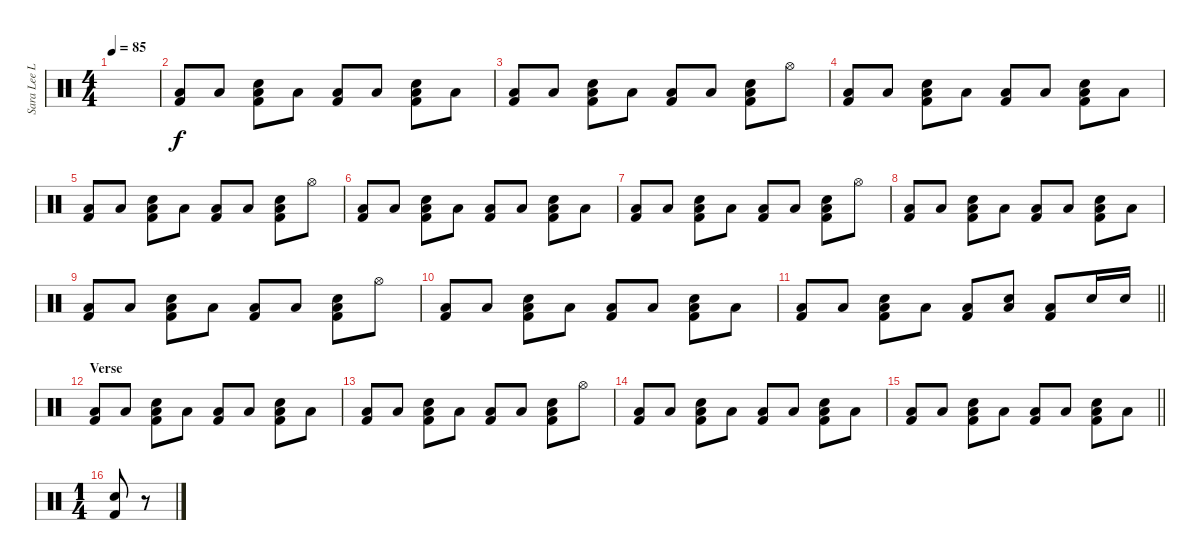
\track ("Sara Lee Lucas" "Sara Lee L") {instrument percussion}
\staff {score}
\articulation defaults
\ts (4 4)
\tempo 85
\clef neutral
\ks c
|
("Low Tom (hit)" "Kick (hit) 2").8 "Low Tom (hit)".8 ("Low Tom (hit)" "Snare (hit) 2" "Kick (hit) 2").8 "Low Tom (hit)".8 ("Low Tom (hit)" "Kick (hit) 2").8 "Low Tom (hit)".8 ("Low Tom (hit)" "Snare (hit) 2" "Kick (hit) 2").8 "Low Tom (hit)".8 |
("Low Tom (hit)" "Kick (hit) 2").8 "Low Tom (hit)".8 ("Low Tom (hit)" "Snare (hit) 2" "Kick (hit) 2").8 "Low Tom (hit)".8 ("Low Tom (hit)" "Kick (hit) 2").8 "Low Tom (hit)".8 ("Low Tom (hit)" "Snare (hit) 2" "Kick (hit) 2").8 "Hi-Hat (open)".8 |
("Low Tom (hit)" "Kick (hit) 2").8 "Low Tom (hit)".8 ("Low Tom (hit)" "Snare (hit) 2" "Kick (hit) 2").8 "Low Tom (hit)".8 ("Low Tom (hit)" "Kick (hit) 2").8 "Low Tom (hit)".8 ("Low Tom (hit)" "Snare (hit) 2" "Kick (hit) 2").8 "Low Tom (hit)".8 |
("Low Tom (hit)" "Kick (hit) 2").8 "Low Tom (hit)".8 ("Low Tom (hit)" "Snare (hit) 2" "Kick (hit) 2").8 "Low Tom (hit)".8 ("Low Tom (hit)" "Kick (hit) 2").8 "Low Tom (hit)".8 ("Low Tom (hit)" "Snare (hit) 2" "Kick (hit) 2").8 "Hi-Hat (open)".8 |
("Low Tom (hit)" "Kick (hit) 2").8 "Low Tom (hit)".8 ("Low Tom (hit)" "Snare (hit) 2" "Kick (hit) 2").8 "Low Tom (hit)".8 ("Low Tom (hit)" "Kick (hit) 2").8 "Low Tom (hit)".8 ("Low Tom (hit)" "Snare (hit) 2" "Kick (hit) 2").8 "Low Tom (hit)".8 |
("Low Tom (hit)" "Kick (hit) 2").8 "Low Tom (hit)".8 ("Low Tom (hit)" "Snare (hit) 2" "Kick (hit) 2").8 "Low Tom (hit)".8 ("Low Tom (hit)" "Kick (hit) 2").8 "Low Tom (hit)".8 ("Low Tom (hit)" "Snare (hit) 2" "Kick (hit) 2").8 "Hi-Hat (open)".8 |
("Low Tom (hit)" "Kick (hit) 2").8 "Low Tom (hit)".8 ("Low Tom (hit)" "Snare (hit) 2" "Kick (hit) 2").8 "Low Tom (hit)".8 ("Low Tom (hit)" "Kick (hit) 2").8 "Low Tom (hit)".8 ("Low Tom (hit)" "Snare (hit) 2" "Kick (hit) 2").8 "Low Tom (hit)".8 |
("Low Tom (hit)" "Kick (hit) 2").8 "Low Tom (hit)".8 ("Low Tom (hit)" "Snare (hit) 2" "Kick (hit) 2").8 "Low Tom (hit)".8 ("Low Tom (hit)" "Kick (hit) 2").8 "Low Tom (hit)".8 ("Low Tom (hit)" "Snare (hit) 2" "Kick (hit) 2").8 "Hi-Hat (open)".8 |
("Low Tom (hit)" "Kick (hit) 2").8 "Low Tom (hit)".8 ("Low Tom (hit)" "Snare (hit) 2" "Kick (hit) 2").8 "Low Tom (hit)".8 ("Low Tom (hit)" "Kick (hit) 2").8 "Low Tom (hit)".8 ("Low Tom (hit)" "Snare (hit) 2" "Kick (hit) 2").8 "Low Tom (hit)".8 |
\barLineRight lightlight
("Low Tom (hit)" "Kick (hit) 2").8 "Low Tom (hit)".8 ("Low Tom (hit)" "Snare (hit) 2" "Kick (hit) 2").8 "Low Tom (hit)".8 ("Low Tom (hit)" "Kick (hit) 2").8 ("Low Tom (hit)" "Snare (hit) 2").8 ("Low Tom (hit)" "Kick (hit) 2").8 "Snare (hit) 2".16 "Snare (hit) 2".16 |
\section ("" "Verse")
("Low Tom (hit)" "Kick (hit) 2").8 "Low Tom (hit)".8 ("Low Tom (hit)" "Snare (hit) 2" "Kick (hit) 2").8 "Low Tom (hit)".8 ("Low Tom (hit)" "Kick (hit) 2").8 "Low Tom (hit)".8 ("Low Tom (hit)" "Snare (hit) 2" "Kick (hit) 2").8 "Low Tom (hit)".8 |
("Low Tom (hit)" "Kick (hit) 2").8 "Low Tom (hit)".8 ("Low Tom (hit)" "Snare (hit) 2" "Kick (hit) 2").8 "Low Tom (hit)".8 ("Low Tom (hit)" "Kick (hit) 2").8 "Low Tom (hit)".8 ("Low Tom (hit)" "Snare (hit) 2" "Kick (hit) 2").8 "Hi-Hat (open)".8 |
("Low Tom (hit)" "Kick (hit) 2").8 "Low Tom (hit)".8 ("Low Tom (hit)" "Snare (hit) 2" "Kick (hit) 2").8 "Low Tom (hit)".8 ("Low Tom (hit)" "Kick (hit) 2").8 "Low Tom (hit)".8 ("Low Tom (hit)" "Snare (hit) 2" "Kick (hit) 2").8 "Low Tom (hit)".8 |
\barLineRight lightlight
("Low Tom (hit)" "Kick (hit) 2").8 "Low Tom (hit)".8 ("Low Tom (hit)" "Snare (hit) 2" "Kick (hit) 2").8 "Low Tom (hit)".8 ("Low Tom (hit)" "Kick (hit) 2").8 "Low Tom (hit)".8 ("Low Tom (hit)" "Snare (hit) 2" "Kick (hit) 2").8 "Low Tom (hit)".8 |
\ts (1 4)
("Snare (hit) 2" "Kick (hit) 2").8 r.8
